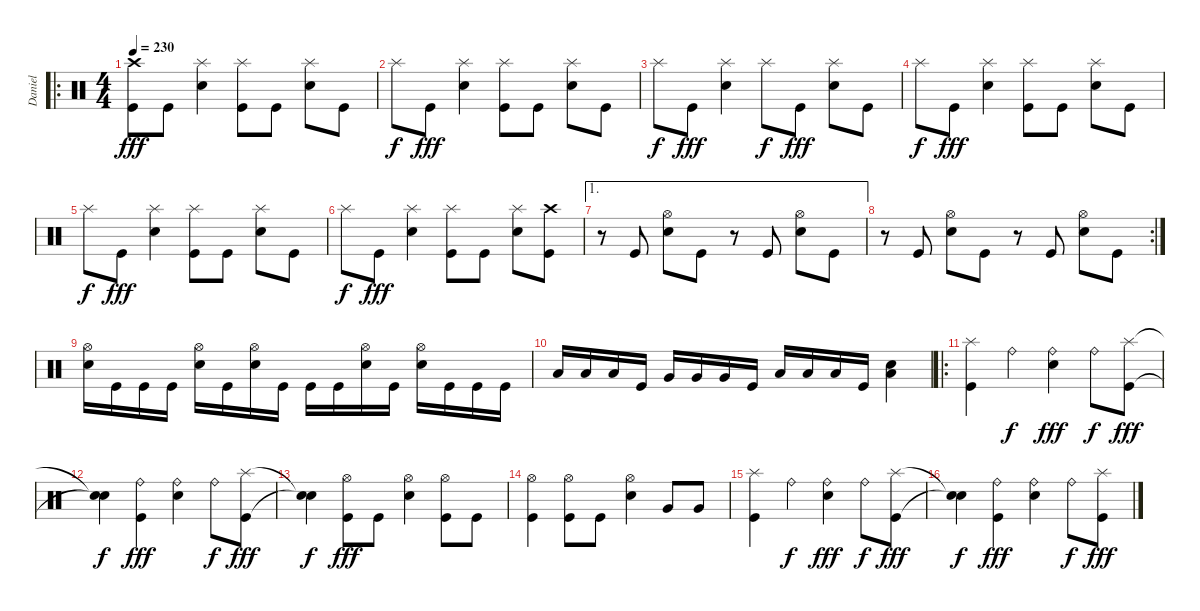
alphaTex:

\track ("Daniel" "Daniel") {instrument percussion}
\staff {score}
\articulation defaults
\ro
\ts (4 4)
\tempo 230
\clef neutral
\ks c
("Kick (hit)" "Crash high (hit)").8{dy fff} "Kick (hit)".8 ("Electric Snare (hit)" "Splash (hit)").4 ("Kick (hit)" "Splash (hit)").8 "Kick (hit)".8 ("Electric Snare (hit)" "Splash (hit)").8 "Kick (hit)".8 |
"Splash (hit)".8{dy f} "Kick (hit)".8{dy fff} ("Electric Snare (hit)" "Splash (hit)").4 ("Kick (hit)" "Splash (hit)").8 "Kick (hit)".8 ("Electric Snare (hit)" "Splash (hit)").8 "Kick (hit)".8 |
"Splash (hit)".8{dy f} "Kick (hit)".8{dy fff} ("Electric Snare (hit)" "Splash (hit)").4 "Splash (hit)".8{dy f} "Kick (hit)".8{dy fff} ("Electric Snare (hit)" "Splash (hit)").8 "Kick (hit)".8 |
"Splash (hit)".8{dy f} "Kick (hit)".8{dy fff} ("Electric Snare (hit)" "Splash (hit)").4 ("Kick (hit)" "Splash (hit)").8 "Kick (hit)".8 ("Electric Snare (hit)" "Splash (hit)").8 "Kick (hit)".8 |
"Splash (hit)".8{dy f} "Kick (hit)".8{dy fff} ("Electric Snare (hit)" "Splash (hit)").4 ("Kick (hit)" "Splash (hit)").8 "Kick (hit)".8 ("Electric Snare (hit)" "Splash (hit)").8 "Kick (hit)".8 |
"Splash (hit)".8{dy f} "Kick (hit)".8{dy fff} ("Electric Snare (hit)" "Splash (hit)").4 ("Kick (hit)" "Splash (hit)").8 "Kick (hit)".8 ("Electric Snare (hit)" "Splash (hit)").8 ("Kick (hit)" "Crash high (hit)").8 |
\ae 1
r.8 "Kick (hit)".8 ("Electric Snare (hit)" "Hi-Hat (open)").8 "Kick (hit)".8 r.8 "Kick (hit)".8 ("Electric Snare (hit)" "Hi-Hat (open)").8 "Kick (hit)".8 |
\rc 2
r.8 "Kick (hit)".8 ("Electric Snare (hit)" "Hi-Hat (open)").8 "Kick (hit)".8 r.8 "Kick (hit)".8 ("Electric Snare (hit)" "Hi-Hat (open)").8 "Kick (hit)".8 |
("Electric Snare (hit)" "Hi-Hat (open)").16 "Kick (hit)".16 "Kick (hit)".16 "Kick (hit)".16 ("Electric Snare (hit)" "Hi-Hat (open)").16 "Kick (hit)".16 ("Electric Snare (hit)" "Hi-Hat (open)").16 "Kick (hit)".16 "Kick (hit)".16 "Kick (hit)".16 ("Electric Snare (hit)" "Hi-Hat (open)").16 "Kick (hit)".16 ("Electric Snare (hit)" "Hi-Hat (open)").16 "Kick (hit)".16 "Kick (hit)".16 "Kick (hit)".16 |
"Low Tom (hit)".16 "Low Tom (hit)".16 "Low Tom (hit)".16 "Kick (hit)".16 "Very Low Tom (hit)".16 "Very Low Tom (hit)".16 "Very Low Tom (hit)".16 "Kick (hit)".16 "Low Floor Tom (hit)".16 "Low Floor Tom (hit)".16 "Low Floor Tom (hit)".16 "Kick (hit)".16 ("Electric Snare (hit)" "Low Floor Tom (hit)").4 |
\ro
("Kick (hit)" "Splash (hit)").4 "Ride (bell)".4{dy f} ("Electric Snare (hit)" "Ride (bell)").4{dy fff} "Ride (bell)".8{dy f} ("Kick (hit)" "Splash (hit)").8{dy fff} |
("Snare (hit)"{t} "Snare (hit)"{t}).4{dy f} ("Kick (hit)" "Ride (bell)").4{dy fff} ("Electric Snare (hit)" "Ride (bell)").4 "Ride (bell)".8{dy f} ("Kick (hit)" "Splash (hit)").8{dy fff} |
("Snare (hit)"{t} "Snare (hit)"{t}).4{dy f} ("Kick (hit)" "Hi-Hat (open)").8{dy fff} "Kick (hit)".8 ("Electric Snare (hit)" "Hi-Hat (open)").4 ("Kick (hit)" "Hi-Hat (open)").8 "Kick (hit)".8 |
("Kick (hit)" "Hi-Hat (open)").4 ("Kick (hit)" "Hi-Hat (open)").8 "Kick (hit)".8 ("Electric Snare (hit)" "Hi-Hat (open)").4 "Very Low Tom (hit)".8 "Very Low Tom (hit)".8 |
("Kick (hit)" "Splash (hit)").4 "Ride (bell)".4{dy f} ("Electric Snare (hit)" "Ride (bell)").4{dy fff} "Ride (bell)".8{dy f} ("Kick (hit)" "Splash (hit)").8{dy fff} |
("Snare (hit)"{t} "Snare (hit)"{t}).4{dy f} ("Kick (hit)" "Ride (bell)").4{dy fff} ("Electric Snare (hit)" "Ride (bell)").4 "Ride (bell)".8{dy f} ("Kick (hit)" "Splash (hit)").8{dy fff}
